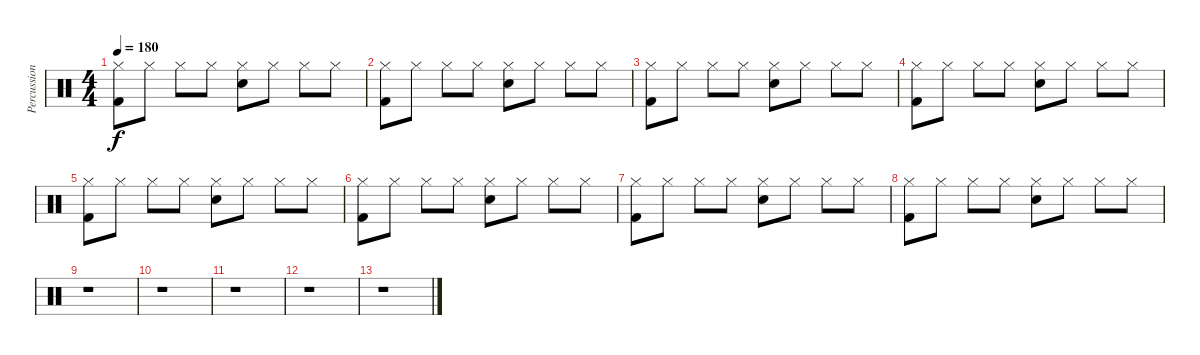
\track ("Percussion / Drums" "Percussion") {instrument percussion}
\staff {score}
\articulation defaults
\ts (4 4)
\tempo 180
\clef neutral
\ks c
("Kick (hit) 2" "Hi-Hat (closed)").8{dy f} "Hi-Hat (closed)".8 "Hi-Hat (closed)".8 "Hi-Hat (closed)".8 ("Snare (hit) 2" "Hi-Hat (closed)").8 "Hi-Hat (closed)".8 "Hi-Hat (closed)".8 "Hi-Hat (closed)".8 |
("Kick (hit) 2" "Hi-Hat (closed)").8 "Hi-Hat (closed)".8 "Hi-Hat (closed)".8 "Hi-Hat (closed)".8 ("Snare (hit) 2" "Hi-Hat (closed)").8 "Hi-Hat (closed)".8 "Hi-Hat (closed)".8 "Hi-Hat (closed)".8 |
("Kick (hit) 2" "Hi-Hat (closed)").8 "Hi-Hat (closed)".8 "Hi-Hat (closed)".8 "Hi-Hat (closed)".8 ("Snare (hit) 2" "Hi-Hat (closed)").8 "Hi-Hat (closed)".8 "Hi-Hat (closed)".8 "Hi-Hat (closed)".8 |
("Kick (hit) 2" "Hi-Hat (closed)").8 "Hi-Hat (closed)".8 "Hi-Hat (closed)".8 "Hi-Hat (closed)".8 ("Snare (hit) 2" "Hi-Hat (closed)").8 "Hi-Hat (closed)".8 "Hi-Hat (closed)".8 "Hi-Hat (closed)".8 |
("Kick (hit) 2" "Hi-Hat (closed)").8 "Hi-Hat (closed)".8 "Hi-Hat (closed)".8 "Hi-Hat (closed)".8 ("Snare (hit) 2" "Hi-Hat (closed)").8 "Hi-Hat (closed)".8 "Hi-Hat (closed)".8 "Hi-Hat (closed)".8 |
("Kick (hit) 2" "Hi-Hat (closed)").8 "Hi-Hat (closed)".8 "Hi-Hat (closed)".8 "Hi-Hat (closed)".8 ("Snare (hit) 2" "Hi-Hat (closed)").8 "Hi-Hat (closed)".8 "Hi-Hat (closed)".8 "Hi-Hat (closed)".8 |
("Kick (hit) 2" "Hi-Hat (closed)").8 "Hi-Hat (closed)".8 "Hi-Hat (closed)".8 "Hi-Hat (closed)".8 ("Snare (hit) 2" "Hi-Hat (closed)").8 "Hi-Hat (closed)".8 "Hi-Hat (closed)".8 "Hi-Hat (closed)".8 |
("Kick (hit) 2" "Hi-Hat (closed)").8 "Hi-Hat (closed)".8 "Hi-Hat (closed)".8 "Hi-Hat (closed)".8 ("Snare (hit) 2" "Hi-Hat (closed)").8 "Hi-Hat (closed)".8 "Hi-Hat (closed)".8 "Hi-Hat (closed)".8 |
r.1 |
r.1 |
r.1 |
r.1 |
r.1
